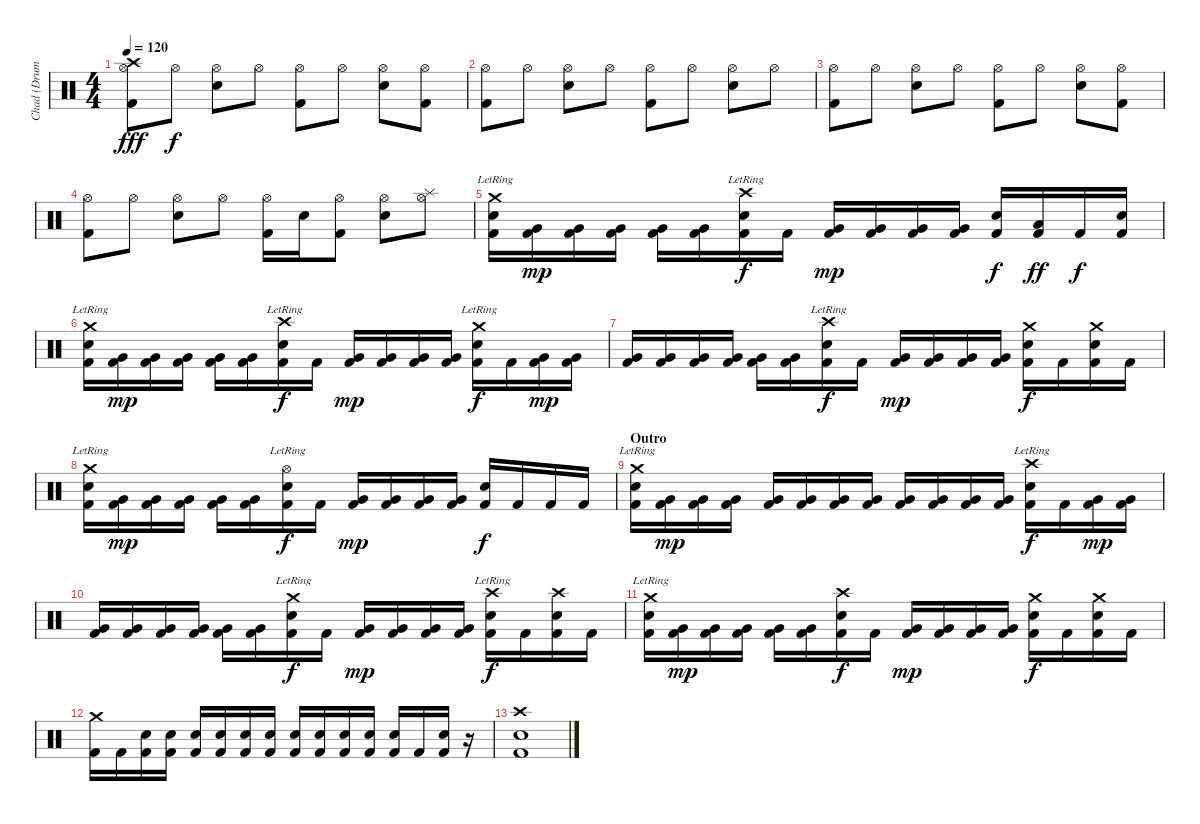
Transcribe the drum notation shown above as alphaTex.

\track ("Chad (Drums)" "Chad (Drum") {instrument percussion}
\staff {score}
\articulation defaults
\ts (4 4)
\tempo 120
\clef neutral
\ks c
("Crash high (hit)" "Hi-Hat (open)" "Kick (hit) 2").8{dy fff} "Hi-Hat (open)".8{dy f} ("Hi-Hat (open)" "Snare (hit) 2").8 "Hi-Hat (open)".8 ("Hi-Hat (open)" "Kick (hit) 2").8 "Hi-Hat (open)".8 ("Hi-Hat (open)" "Snare (hit) 2").8 ("Hi-Hat (open)" "Kick (hit) 2").8 |
("Hi-Hat (open)" "Kick (hit) 2").8 "Hi-Hat (open)".8 ("Hi-Hat (open)" "Snare (hit) 2").8 "Hi-Hat (open)".8 ("Hi-Hat (open)" "Kick (hit) 2").8 "Hi-Hat (open)".8 ("Hi-Hat (open)" "Snare (hit) 2").8 "Hi-Hat (open)".8 |
("Hi-Hat (open)" "Kick (hit) 2").8 "Hi-Hat (open)".8 ("Hi-Hat (open)" "Snare (hit) 2").8 "Hi-Hat (open)".8 ("Hi-Hat (open)" "Kick (hit) 2").8 "Hi-Hat (open)".8 ("Hi-Hat (open)" "Snare (hit) 2").8 ("Hi-Hat (open)" "Kick (hit) 2").8 |
("Hi-Hat (open)" "Kick (hit) 2").8 "Hi-Hat (open)".8 ("Hi-Hat (open)" "Snare (hit) 2").8 "Hi-Hat (open)".8 ("Hi-Hat (open)" "Kick (hit) 2").16 "Snare (hit) 2".16 ("Hi-Hat (open)" "Kick (hit) 2").8 ("Hi-Hat (open)" "Snare (hit) 2").8 ("Splash (hit)" "Hi-Hat (open)").8 |
("Crash medium (hit)"{lr} "Snare (hit) 2" "Kick (hit) 2").16 ("Very Low Tom (hit)" "Kick (hit) 2").16{dy mp} ("Very Low Tom (hit)" "Kick (hit) 2").16 ("Very Low Tom (hit)" "Kick (hit) 2").16 ("Very Low Tom (hit)" "Kick (hit) 2").16 ("Very Low Tom (hit)" "Kick (hit) 2").16 ("Crash high (hit)"{lr} "Snare (hit) 2" "Kick (hit) 2").16{dy f} "Kick (hit) 2".16 ("Very Low Tom (hit)" "Kick (hit) 2").16{dy mp} ("Very Low Tom (hit)" "Kick (hit) 2").16 ("Very Low Tom (hit)" "Kick (hit) 2").16 ("Very Low Tom (hit)" "Kick (hit) 2").16 ("Snare (hit) 2" "Kick (hit) 2").16{dy f} ("Low Floor Tom (hit)" "Kick (hit) 2").16{dy ff} "Kick (hit) 2".16{dy f} ("Snare (hit) 2" "Kick (hit) 2").16 |
("Crash medium (hit)"{lr} "Snare (hit) 2" "Kick (hit) 2").16 ("Very Low Tom (hit)" "Kick (hit) 2").16{dy mp} ("Very Low Tom (hit)" "Kick (hit) 2").16 ("Very Low Tom (hit)" "Kick (hit) 2").16 ("Very Low Tom (hit)" "Kick (hit) 2").16 ("Very Low Tom (hit)" "Kick (hit) 2").16 ("Crash high (hit)"{lr} "Snare (hit) 2" "Kick (hit) 2").16{dy f} "Kick (hit) 2".16 ("Very Low Tom (hit)" "Kick (hit) 2").16{dy mp} ("Very Low Tom (hit)" "Kick (hit) 2").16 ("Very Low Tom (hit)" "Kick (hit) 2").16 ("Very Low Tom (hit)" "Kick (hit) 2").16 ("Crash medium (hit)"{lr} "Snare (hit) 2" "Kick (hit) 2").16{dy f} "Kick (hit) 2".16 ("Very Low Tom (hit)" "Kick (hit) 2").16{dy mp} ("Very Low Tom (hit)" "Kick (hit) 2").16 |
("Very Low Tom (hit)" "Kick (hit) 2").16 ("Very Low Tom (hit)" "Kick (hit) 2").16 ("Very Low Tom (hit)" "Kick (hit) 2").16 ("Very Low Tom (hit)" "Kick (hit) 2").16 ("Very Low Tom (hit)" "Kick (hit) 2").16 ("Very Low Tom (hit)" "Kick (hit) 2").16 ("Crash high (hit)"{lr} "Snare (hit) 2" "Kick (hit) 2").16{dy f} "Kick (hit) 2".16 ("Very Low Tom (hit)" "Kick (hit) 2").16{dy mp} ("Very Low Tom (hit)" "Kick (hit) 2").16 ("Very Low Tom (hit)" "Kick (hit) 2").16 ("Very Low Tom (hit)" "Kick (hit) 2").16 ("Crash medium (hit)" "Snare (hit) 2" "Kick (hit) 2").16{dy f} "Kick (hit) 2".16 ("Crash medium (hit)" "Snare (hit) 2" "Kick (hit) 2").16 "Kick (hit) 2".16 |
("Crash medium (hit)"{lr} "Snare (hit) 2" "Kick (hit) 2").16 ("Very Low Tom (hit)" "Kick (hit) 2").16{dy mp} ("Very Low Tom (hit)" "Kick (hit) 2").16 ("Very Low Tom (hit)" "Kick (hit) 2").16 ("Very Low Tom (hit)" "Kick (hit) 2").16 ("Very Low Tom (hit)" "Kick (hit) 2").16 ("Hi-Hat (open)"{lr} "Snare (hit) 2" "Kick (hit) 2").16{dy f} "Kick (hit) 2".16 ("Very Low Tom (hit)" "Kick (hit) 2").16{dy mp} ("Very Low Tom (hit)" "Kick (hit) 2").16 ("Very Low Tom (hit)" "Kick (hit) 2").16 ("Very Low Tom (hit)" "Kick (hit) 2").16 ("Snare (hit) 2" "Kick (hit) 2").16{dy f} "Kick (hit) 2".16 "Kick (hit) 2".16 "Kick (hit) 2".16 |
\section ("" "Outro")
("Crash medium (hit)"{lr} "Snare (hit) 2" "Kick (hit) 2").16 ("Very Low Tom (hit)" "Kick (hit) 2").16{dy mp} ("Very Low Tom (hit)" "Kick (hit) 2").16 ("Very Low Tom (hit)" "Kick (hit) 2").16 ("Very Low Tom (hit)" "Kick (hit) 2").16 ("Very Low Tom (hit)" "Kick (hit) 2").16 ("Very Low Tom (hit)" "Kick (hit) 2").16 ("Very Low Tom (hit)" "Kick (hit) 2").16 ("Very Low Tom (hit)" "Kick (hit) 2").16 ("Very Low Tom (hit)" "Kick (hit) 2").16 ("Very Low Tom (hit)" "Kick (hit) 2").16 ("Very Low Tom (hit)" "Kick (hit) 2").16 ("Crash high (hit)"{lr} "Snare (hit) 2" "Kick (hit) 2").16{dy f} "Kick (hit) 2".16 ("Very Low Tom (hit)" "Kick (hit) 2").16{dy mp} ("Very Low Tom (hit)" "Kick (hit) 2").16 |
("Very Low Tom (hit)" "Kick (hit) 2").16 ("Very Low Tom (hit)" "Kick (hit) 2").16 ("Very Low Tom (hit)" "Kick (hit) 2").16 ("Very Low Tom (hit)" "Kick (hit) 2").16 ("Very Low Tom (hit)" "Kick (hit) 2").16 ("Very Low Tom (hit)" "Kick (hit) 2").16 ("Crash medium (hit)"{lr} "Snare (hit) 2" "Kick (hit) 2").16{dy f} "Kick (hit) 2".16 ("Very Low Tom (hit)" "Kick (hit) 2").16{dy mp} ("Very Low Tom (hit)" "Kick (hit) 2").16 ("Very Low Tom (hit)" "Kick (hit) 2").16 ("Very Low Tom (hit)" "Kick (hit) 2").16 ("Crash high (hit)"{lr} "Snare (hit) 2" "Kick (hit) 2").16{dy f} "Kick (hit) 2".16 ("Crash high (hit)" "Snare (hit) 2" "Kick (hit) 2").16 "Kick (hit) 2".16 |
("Crash medium (hit)"{lr} "Snare (hit) 2" "Kick (hit) 2").16 ("Very Low Tom (hit)" "Kick (hit) 2").16{dy mp} ("Very Low Tom (hit)" "Kick (hit) 2").16 ("Very Low Tom (hit)" "Kick (hit) 2").16 ("Very Low Tom (hit)" "Kick (hit) 2").16 ("Very Low Tom (hit)" "Kick (hit) 2").16 ("Crash high (hit)" "Snare (hit) 2" "Kick (hit) 2").16{dy f} "Kick (hit) 2".16 ("Very Low Tom (hit)" "Kick (hit) 2").16{dy mp} ("Very Low Tom (hit)" "Kick (hit) 2").16 ("Very Low Tom (hit)" "Kick (hit) 2").16 ("Very Low Tom (hit)" "Kick (hit) 2").16 ("Crash medium (hit)" "Snare (hit) 2" "Kick (hit) 2").16{dy f} "Kick (hit) 2".16 ("Crash medium (hit)" "Snare (hit) 2" "Kick (hit) 2").16 "Kick (hit) 2".16 |
("Crash medium (hit)" "Kick (hit) 2").16 "Kick (hit) 2".16 ("Electric Snare (hit)" "Kick (hit) 2").16 ("Electric Snare (hit)" "Kick (hit) 2").16 ("Electric Snare (hit)" "Kick (hit) 2").16 ("Electric Snare (hit)" "Kick (hit) 2").16 ("Electric Snare (hit)" "Kick (hit) 2").16 ("Electric Snare (hit)" "Kick (hit) 2").16 ("Electric Snare (hit)" "Kick (hit) 2").16 ("Electric Snare (hit)" "Kick (hit) 2").16 ("Electric Snare (hit)" "Kick (hit) 2").16 ("Electric Snare (hit)" "Kick (hit) 2").16 ("Electric Snare (hit)" "Kick (hit) 2").16 "Kick (hit) 2".16 ("Electric Snare (hit)" "Kick (hit) 2").16 r.16 |
("Crash high (hit)" "Snare (hit) 2" "Kick (hit) 2").1
